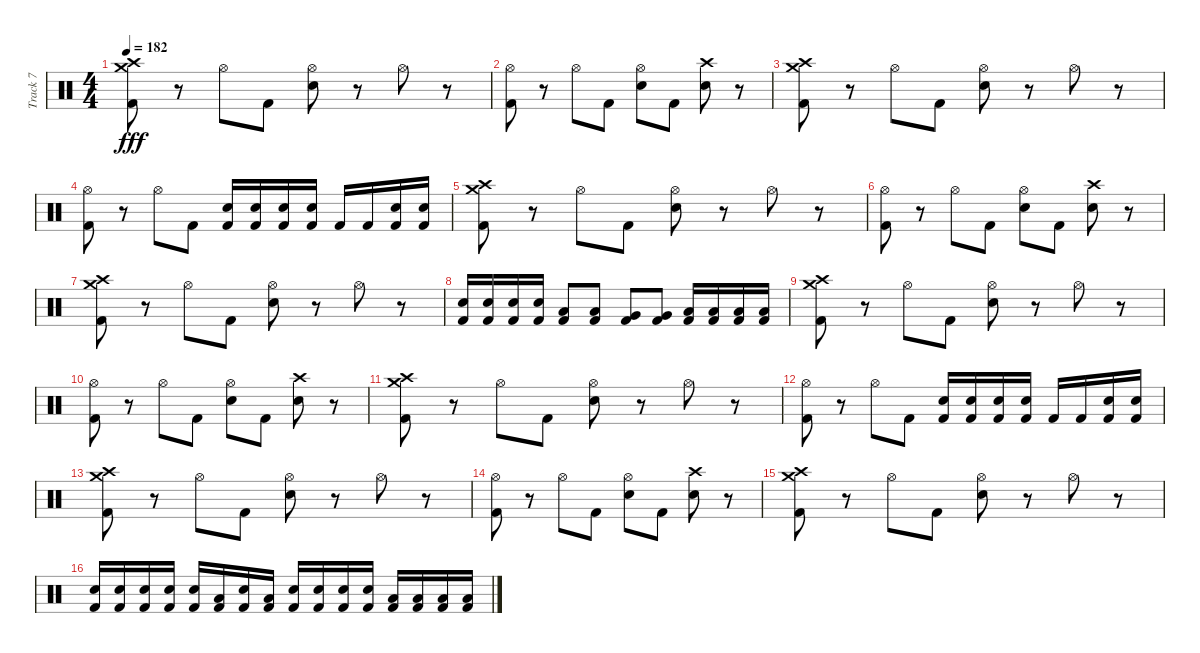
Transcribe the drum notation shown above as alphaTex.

\track ("Track 7" "Track 7") {instrument percussion}
\staff {score}
\articulation defaults
\ts (4 4)
\tempo 182
\clef neutral
\ks c
("Kick (hit) 2" "Crash medium (hit)" "Crash high (hit)").8{dy fff} r.8 "Hi-Hat (open)".8 "Kick (hit) 2".8 ("Electric Snare (hit)" "Hi-Hat (open)").8 r.8 "Hi-Hat (open)".8 r.8 |
("Kick (hit) 2" "Hi-Hat (open)").8 r.8 "Hi-Hat (open)".8 "Kick (hit) 2".8 ("Electric Snare (hit)" "Hi-Hat (open)").8 "Kick (hit) 2".8 ("Electric Snare (hit)" "Crash high (hit)").8 r.8 |
("Kick (hit) 2" "Crash medium (hit)" "Crash high (hit)").8 r.8 "Hi-Hat (open)".8 "Kick (hit) 2".8 ("Electric Snare (hit)" "Hi-Hat (open)").8 r.8 "Hi-Hat (open)".8 r.8 |
("Kick (hit) 2" "Hi-Hat (open)").8 r.8 "Hi-Hat (open)".8 "Kick (hit) 2".8 ("Kick (hit) 2" "Electric Snare (hit)").16 ("Kick (hit) 2" "Electric Snare (hit)").16 ("Kick (hit) 2" "Electric Snare (hit)").16 ("Kick (hit) 2" "Electric Snare (hit)").16 "Kick (hit) 2".16 "Kick (hit) 2".16 ("Kick (hit) 2" "Electric Snare (hit)").16 ("Kick (hit) 2" "Electric Snare (hit)").16 |
("Kick (hit) 2" "Crash medium (hit)" "Crash high (hit)").8 r.8 "Hi-Hat (open)".8 "Kick (hit) 2".8 ("Electric Snare (hit)" "Hi-Hat (open)").8 r.8 "Hi-Hat (open)".8 r.8 |
("Kick (hit) 2" "Hi-Hat (open)").8 r.8 "Hi-Hat (open)".8 "Kick (hit) 2".8 ("Electric Snare (hit)" "Hi-Hat (open)").8 "Kick (hit) 2".8 ("Electric Snare (hit)" "Crash high (hit)").8 r.8 |
("Kick (hit) 2" "Crash medium (hit)" "Crash high (hit)").8 r.8 "Hi-Hat (open)".8 "Kick (hit) 2".8 ("Electric Snare (hit)" "Hi-Hat (open)").8 r.8 "Hi-Hat (open)".8 r.8 |
("Kick (hit) 2" "Electric Snare (hit)").16 ("Kick (hit) 2" "Electric Snare (hit)").16 ("Kick (hit) 2" "Electric Snare (hit)").16 ("Kick (hit) 2" "Electric Snare (hit)").16 ("Kick (hit) 2" "Low Tom (hit)").8 ("Kick (hit) 2" "Low Tom (hit)").8 ("Kick (hit) 2" "Very Low Tom (hit)").8 ("Kick (hit) 2" "Very Low Tom (hit)").8 ("Kick (hit) 2" "Low Floor Tom (hit)").16 ("Kick (hit) 2" "Low Floor Tom (hit)").16 ("Kick (hit) 2" "Low Floor Tom (hit)").16 ("Kick (hit) 2" "Low Floor Tom (hit)").16 |
("Kick (hit) 2" "Crash medium (hit)" "Crash high (hit)").8 r.8 "Hi-Hat (open)".8 "Kick (hit) 2".8 ("Electric Snare (hit)" "Hi-Hat (open)").8 r.8 "Hi-Hat (open)".8 r.8 |
("Kick (hit) 2" "Hi-Hat (open)").8 r.8 "Hi-Hat (open)".8 "Kick (hit) 2".8 ("Electric Snare (hit)" "Hi-Hat (open)").8 "Kick (hit) 2".8 ("Electric Snare (hit)" "Crash high (hit)").8 r.8 |
("Kick (hit) 2" "Crash medium (hit)" "Crash high (hit)").8 r.8 "Hi-Hat (open)".8 "Kick (hit) 2".8 ("Electric Snare (hit)" "Hi-Hat (open)").8 r.8 "Hi-Hat (open)".8 r.8 |
("Kick (hit) 2" "Hi-Hat (open)").8 r.8 "Hi-Hat (open)".8 "Kick (hit) 2".8 ("Kick (hit) 2" "Electric Snare (hit)").16 ("Kick (hit) 2" "Electric Snare (hit)").16 ("Kick (hit) 2" "Electric Snare (hit)").16 ("Kick (hit) 2" "Electric Snare (hit)").16 "Kick (hit) 2".16 "Kick (hit) 2".16 ("Kick (hit) 2" "Electric Snare (hit)").16 ("Kick (hit) 2" "Electric Snare (hit)").16 |
("Kick (hit) 2" "Crash medium (hit)" "Crash high (hit)").8 r.8 "Hi-Hat (open)".8 "Kick (hit) 2".8 ("Electric Snare (hit)" "Hi-Hat (open)").8 r.8 "Hi-Hat (open)".8 r.8 |
("Kick (hit) 2" "Hi-Hat (open)").8 r.8 "Hi-Hat (open)".8 "Kick (hit) 2".8 ("Electric Snare (hit)" "Hi-Hat (open)").8 "Kick (hit) 2".8 ("Electric Snare (hit)" "Crash high (hit)").8 r.8 |
("Kick (hit) 2" "Crash medium (hit)" "Crash high (hit)").8 r.8 "Hi-Hat (open)".8 "Kick (hit) 2".8 ("Electric Snare (hit)" "Hi-Hat (open)").8 r.8 "Hi-Hat (open)".8 r.8 |
("Kick (hit) 2" "Electric Snare (hit)").16 ("Kick (hit) 2" "Electric Snare (hit)").16 ("Kick (hit) 2" "Electric Snare (hit)").16 ("Kick (hit) 2" "Electric Snare (hit)").16 ("Kick (hit) 2" "Electric Snare (hit)").16 ("Kick (hit) 2" "Low Tom (hit)").16 ("Kick (hit) 2" "Electric Snare (hit)").16 ("Kick (hit) 2" "Low Tom (hit)").16 ("Kick (hit) 2" "Electric Snare (hit)").16 ("Kick (hit) 2" "Electric Snare (hit)").16 ("Kick (hit) 2" "Electric Snare (hit)").16 ("Kick (hit) 2" "Electric Snare (hit)").16 ("Kick (hit) 2" "Low Tom (hit)").16 ("Kick (hit) 2" "Low Tom (hit)").16 ("Kick (hit) 2" "Low Tom (hit)").16 ("Kick (hit) 2" "Low Tom (hit)").16
